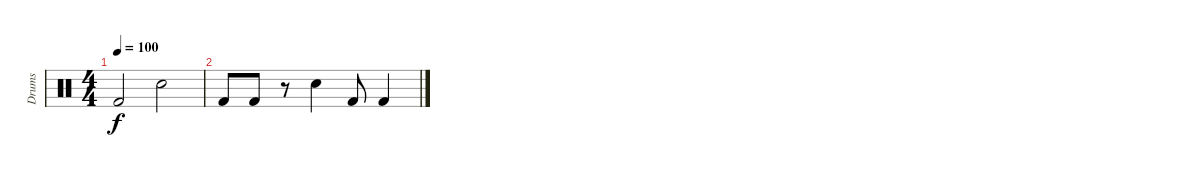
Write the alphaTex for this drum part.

\track ("Drums" "Drums") {instrument percussion}
\staff {score}
\articulation defaults
\ts (4 4)
\tempo 100
\clef neutral
\ks c "Kick (hit) 2".2{dy f} "Snare (hit) 2".2
|
"Kick (hit) 2".8 "Kick (hit) 2".8 r.8 "Snare (hit) 2".4 "Kick (hit) 2".8 "Kick (hit) 2".4
